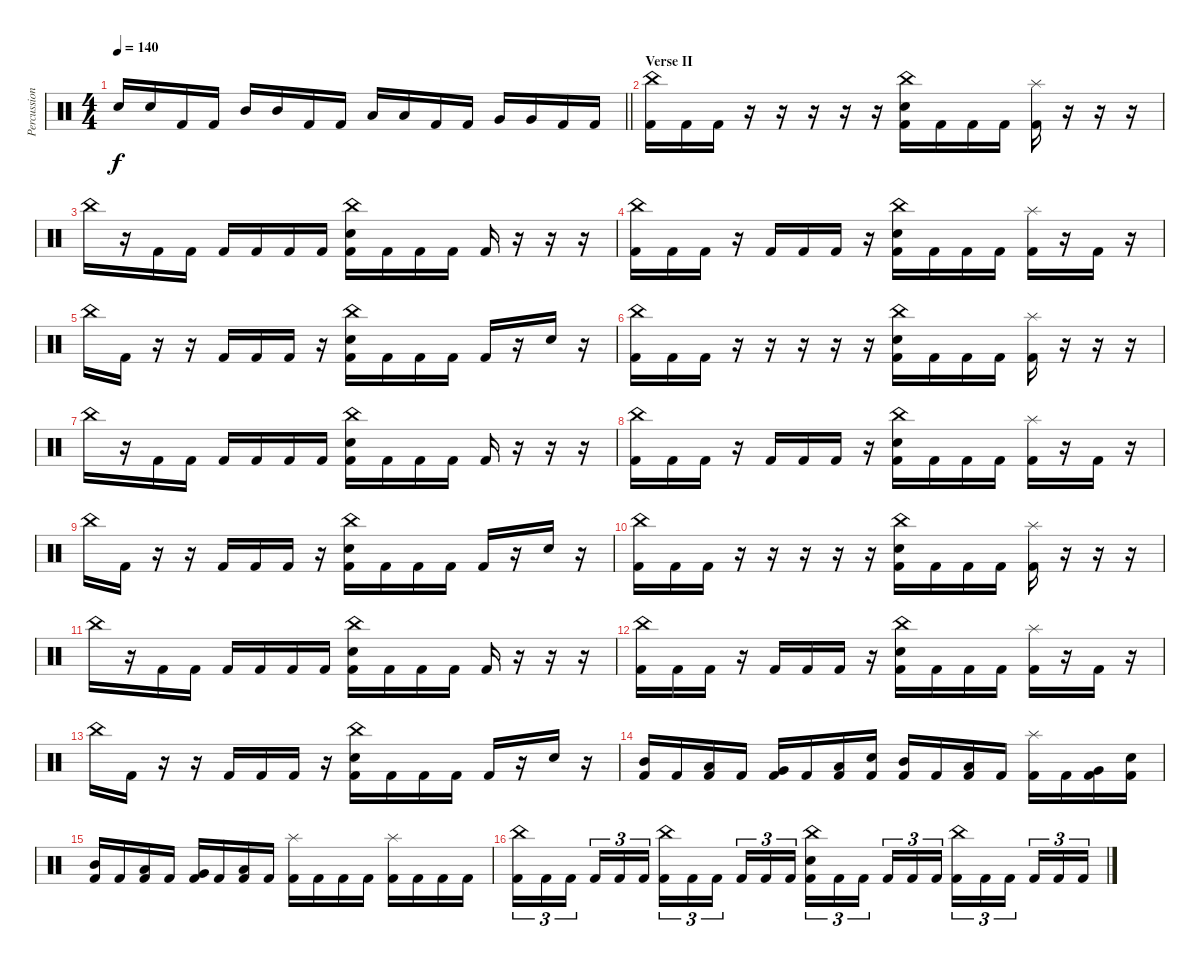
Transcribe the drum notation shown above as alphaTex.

\track ("Percussion" "Percussion") {instrument percussion}
\staff {score}
\articulation defaults
\ts (4 4)
\tempo 140
\clef neutral
\barLineRight lightlight
\ks c "Snare (hit) 2".16{dy f} "Snare (hit) 2".16 "Kick (hit) 2".16 "Kick (hit) 2".16 "Mid Tom (hit)".16 "Mid Tom (hit)".16 "Kick (hit) 2".16 "Kick (hit) 2".16 "Low Tom (hit)".16 "Low Tom (hit)".16 "Kick (hit) 2".16 "Kick (hit) 2".16 "Very Low Tom (hit)".16 "Very Low Tom (hit)".16 "Kick (hit) 2".16 "Kick (hit) 2".16
|
\section ("" "Verse II")
("China (hit)" "Kick (hit) 2").16 "Kick (hit) 2".16 "Kick (hit) 2".16 r.16 r.16 r.16 r.16 r.16 ("China (hit)" "Snare (hit) 2" "Kick (hit) 2").16 "Kick (hit) 2".16 "Kick (hit) 2".16 "Kick (hit) 2".16 ("Splash (hit)" "Kick (hit) 2").16 r.16 r.16 r.16 |
"China (hit)".16 r.16 "Kick (hit) 2".16 "Kick (hit) 2".16 "Kick (hit) 2".16 "Kick (hit) 2".16 "Kick (hit) 2".16 "Kick (hit) 2".16 ("Snare (hit) 2" "China (hit)" "Kick (hit) 2").16 "Kick (hit) 2".16 "Kick (hit) 2".16 "Kick (hit) 2".16 "Kick (hit) 2".16 r.16 r.16 r.16 |
("China (hit)" "Kick (hit) 2").16 "Kick (hit) 2".16 "Kick (hit) 2".16 r.16 "Kick (hit) 2".16 "Kick (hit) 2".16 "Kick (hit) 2".16 r.16 ("Snare (hit) 2" "China (hit)" "Kick (hit) 2").16 "Kick (hit) 2".16 "Kick (hit) 2".16 "Kick (hit) 2".16 ("Splash (hit)" "Kick (hit) 2").16 r.16 "Kick (hit) 2".16 r.16 |
"China (hit)".16 "Kick (hit) 2".16 r.16 r.16 "Kick (hit) 2".16 "Kick (hit) 2".16 "Kick (hit) 2".16 r.16 ("Snare (hit) 2" "China (hit)" "Kick (hit) 2").16 "Kick (hit) 2".16 "Kick (hit) 2".16 "Kick (hit) 2".16 "Kick (hit) 2".16 r.16 "Snare (hit) 2".16 r.16 |
("China (hit)" "Kick (hit) 2").16 "Kick (hit) 2".16 "Kick (hit) 2".16 r.16 r.16 r.16 r.16 r.16 ("China (hit)" "Snare (hit) 2" "Kick (hit) 2").16 "Kick (hit) 2".16 "Kick (hit) 2".16 "Kick (hit) 2".16 ("Splash (hit)" "Kick (hit) 2").16 r.16 r.16 r.16 |
"China (hit)".16 r.16 "Kick (hit) 2".16 "Kick (hit) 2".16 "Kick (hit) 2".16 "Kick (hit) 2".16 "Kick (hit) 2".16 "Kick (hit) 2".16 ("Snare (hit) 2" "China (hit)" "Kick (hit) 2").16 "Kick (hit) 2".16 "Kick (hit) 2".16 "Kick (hit) 2".16 "Kick (hit) 2".16 r.16 r.16 r.16 |
("China (hit)" "Kick (hit) 2").16 "Kick (hit) 2".16 "Kick (hit) 2".16 r.16 "Kick (hit) 2".16 "Kick (hit) 2".16 "Kick (hit) 2".16 r.16 ("Snare (hit) 2" "China (hit)" "Kick (hit) 2").16 "Kick (hit) 2".16 "Kick (hit) 2".16 "Kick (hit) 2".16 ("Splash (hit)" "Kick (hit) 2").16 r.16 "Kick (hit) 2".16 r.16 |
"China (hit)".16 "Kick (hit) 2".16 r.16 r.16 "Kick (hit) 2".16 "Kick (hit) 2".16 "Kick (hit) 2".16 r.16 ("Snare (hit) 2" "China (hit)" "Kick (hit) 2").16 "Kick (hit) 2".16 "Kick (hit) 2".16 "Kick (hit) 2".16 "Kick (hit) 2".16 r.16 "Snare (hit) 2".16 r.16 |
("China (hit)" "Kick (hit) 2").16 "Kick (hit) 2".16 "Kick (hit) 2".16 r.16 r.16 r.16 r.16 r.16 ("China (hit)" "Snare (hit) 2" "Kick (hit) 2").16 "Kick (hit) 2".16 "Kick (hit) 2".16 "Kick (hit) 2".16 ("Splash (hit)" "Kick (hit) 2").16 r.16 r.16 r.16 |
"China (hit)".16 r.16 "Kick (hit) 2".16 "Kick (hit) 2".16 "Kick (hit) 2".16 "Kick (hit) 2".16 "Kick (hit) 2".16 "Kick (hit) 2".16 ("Snare (hit) 2" "China (hit)" "Kick (hit) 2").16 "Kick (hit) 2".16 "Kick (hit) 2".16 "Kick (hit) 2".16 "Kick (hit) 2".16 r.16 r.16 r.16 |
("China (hit)" "Kick (hit) 2").16 "Kick (hit) 2".16 "Kick (hit) 2".16 r.16 "Kick (hit) 2".16 "Kick (hit) 2".16 "Kick (hit) 2".16 r.16 ("Snare (hit) 2" "China (hit)" "Kick (hit) 2").16 "Kick (hit) 2".16 "Kick (hit) 2".16 "Kick (hit) 2".16 ("Splash (hit)" "Kick (hit) 2").16 r.16 "Kick (hit) 2".16 r.16 |
"China (hit)".16 "Kick (hit) 2".16 r.16 r.16 "Kick (hit) 2".16 "Kick (hit) 2".16 "Kick (hit) 2".16 r.16 ("Snare (hit) 2" "China (hit)" "Kick (hit) 2").16 "Kick (hit) 2".16 "Kick (hit) 2".16 "Kick (hit) 2".16 "Kick (hit) 2".16 r.16 "Snare (hit) 2".16 r.16 |
("Mid Tom (hit)" "Kick (hit) 2").16 "Kick (hit) 2".16 ("Low Tom (hit)" "Kick (hit) 2").16 "Kick (hit) 2".16 ("Very Low Tom (hit)" "Kick (hit) 2").16 "Kick (hit) 2".16 ("Low Floor Tom (hit)" "Kick (hit) 2").16 ("Snare (hit) 2" "Kick (hit) 2").16 ("Mid Tom (hit)" "Kick (hit) 2").16 "Kick (hit) 2".16 ("Low Tom (hit)" "Kick (hit) 2").16 "Kick (hit) 2".16 ("Splash (hit)" "Kick (hit) 2").16 "Kick (hit) 2".16 ("Very Low Tom (hit)" "Kick (hit) 2").16 ("Snare (hit) 2" "Kick (hit) 2").16 |
("Mid Tom (hit)" "Kick (hit) 2").16 "Kick (hit) 2".16 ("Low Tom (hit)" "Kick (hit) 2").16 "Kick (hit) 2".16 ("Very Low Tom (hit)" "Kick (hit) 2").16 "Kick (hit) 2".16 ("Low Floor Tom (hit)" "Kick (hit) 2").16 "Kick (hit) 2".16 ("Splash (hit)" "Kick (hit) 2").16 "Kick (hit) 2".16 "Kick (hit) 2".16 "Kick (hit) 2".16 ("Splash (hit)" "Kick (hit) 2").16 "Kick (hit) 2".16 "Kick (hit) 2".16 "Kick (hit) 2".16 |
("China (hit)" "Kick (hit) 2").16{tu (3 2)} "Kick (hit) 2".16{tu (3 2)} "Kick (hit) 2".16{tu (3 2) beam splitsecondary} "Kick (hit) 2".16{tu (3 2)} "Kick (hit) 2".16{tu (3 2)} "Kick (hit) 2".16{tu (3 2)} ("China (hit)" "Kick (hit) 2").16{tu (3 2)} "Kick (hit) 2".16{tu (3 2)} "Kick (hit) 2".16{tu (3 2) beam splitsecondary} "Kick (hit) 2".16{tu (3 2)} "Kick (hit) 2".16{tu (3 2)} "Kick (hit) 2".16{tu (3 2)} ("China (hit)" "Snare (hit) 2" "Kick (hit) 2").16{tu (3 2)} "Kick (hit) 2".16{tu (3 2)} "Kick (hit) 2".16{tu (3 2) beam splitsecondary} "Kick (hit) 2".16{tu (3 2)} "Kick (hit) 2".16{tu (3 2)} "Kick (hit) 2".16{tu (3 2)} ("China (hit)" "Kick (hit) 2").16{tu (3 2)} "Kick (hit) 2".16{tu (3 2)} "Kick (hit) 2".16{tu (3 2) beam splitsecondary} "Kick (hit) 2".16{tu (3 2)} "Kick (hit) 2".16{tu (3 2)} "Kick (hit) 2".16{tu (3 2)}
